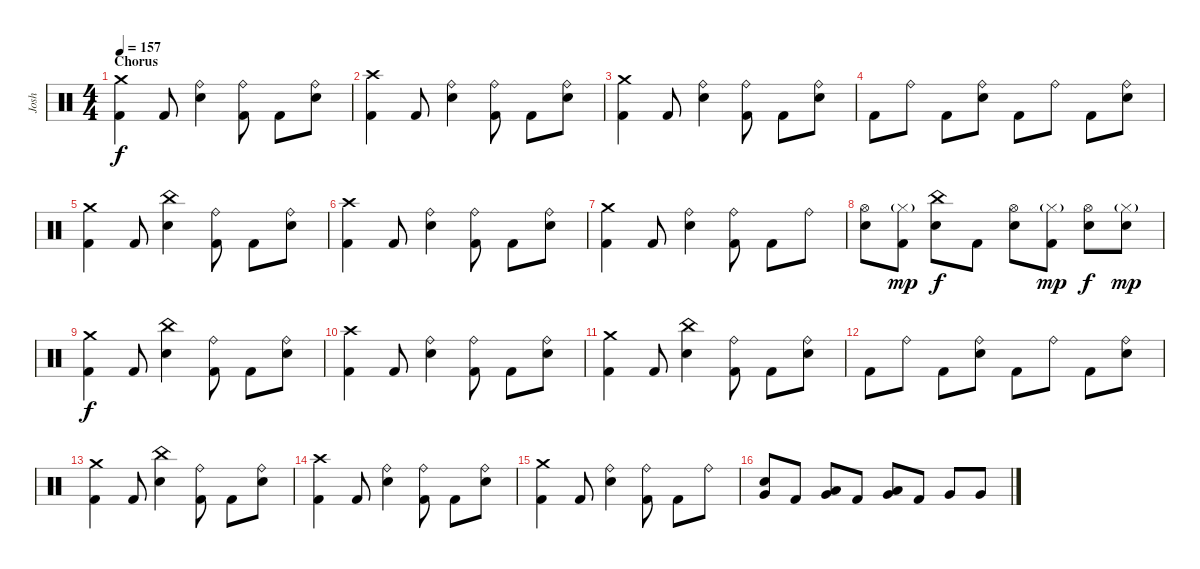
\track ("Josh" "Josh") {instrument percussion}
\staff {score}
\articulation defaults
\ts (4 4)
\section ("" "Chorus")
\tempo 157
\clef neutral
\ks c
("Crash medium (hit)" "Kick (hit) 2").4{dy f} "Kick (hit) 2".8 ("Ride (bell)" "Electric Snare (hit)").4 ("Ride (bell)" "Kick (hit) 2").8 "Kick (hit) 2".8 ("Ride (bell)" "Electric Snare (hit)").8 |
("Crash high (hit)" "Kick (hit) 2").4 "Kick (hit) 2".8 ("Ride (bell)" "Electric Snare (hit)").4 ("Ride (bell)" "Kick (hit) 2").8 "Kick (hit) 2".8 ("Ride (bell)" "Electric Snare (hit)").8 |
("Crash medium (hit)" "Kick (hit) 2").4 "Kick (hit) 2".8 ("Ride (bell)" "Electric Snare (hit)").4 ("Ride (bell)" "Kick (hit) 2").8 "Kick (hit) 2".8 ("Ride (bell)" "Electric Snare (hit)").8 |
"Kick (hit) 2".8 "Ride (bell)".8 "Kick (hit) 2".8 ("Ride (bell)" "Electric Snare (hit)").8 "Kick (hit) 2".8 "Ride (bell)".8 "Kick (hit) 2".8 ("Ride (bell)" "Electric Snare (hit)").8 |
("Crash medium (hit)" "Kick (hit) 2").4 "Kick (hit) 2".8 ("China (hit)" "Electric Snare (hit)").4 ("Ride (bell)" "Kick (hit) 2").8 "Kick (hit) 2".8 ("Ride (bell)" "Electric Snare (hit)").8 |
("Crash high (hit)" "Kick (hit) 2").4 "Kick (hit) 2".8 ("Ride (bell)" "Electric Snare (hit)").4 ("Ride (bell)" "Kick (hit) 2").8 "Kick (hit) 2".8 ("Ride (bell)" "Electric Snare (hit)").8 |
("Crash medium (hit)" "Kick (hit) 2").4 "Kick (hit) 2".8 ("Ride (bell)" "Electric Snare (hit)").4 ("Ride (bell)" "Kick (hit) 2").8 "Kick (hit) 2".8 "Ride (bell)".8 |
("Hi-Hat (open)" "Electric Snare (hit)").8 ("Hi-Hat (closed)"{g} "Kick (hit) 2").8{dy mp} ("China (hit)" "Electric Snare (hit)").8{dy f} "Kick (hit) 2".8 ("Hi-Hat (open)" "Electric Snare (hit)").8 ("Hi-Hat (closed)"{g} "Kick (hit) 2").8{dy mp} ("Hi-Hat (open)" "Electric Snare (hit)").8{dy f} ("Hi-Hat (closed)"{g} "Electric Snare (hit)").8{dy mp} |
("Crash medium (hit)" "Kick (hit) 2").4{dy f} "Kick (hit) 2".8 ("China (hit)" "Electric Snare (hit)").4 ("Ride (bell)" "Kick (hit) 2").8 "Kick (hit) 2".8 ("Ride (bell)" "Electric Snare (hit)").8 |
("Crash high (hit)" "Kick (hit) 2").4 "Kick (hit) 2".8 ("Ride (bell)" "Electric Snare (hit)").4 ("Ride (bell)" "Kick (hit) 2").8 "Kick (hit) 2".8 ("Ride (bell)" "Electric Snare (hit)").8 |
("Crash medium (hit)" "Kick (hit) 2").4 "Kick (hit) 2".8 ("China (hit)" "Electric Snare (hit)").4 ("Ride (bell)" "Kick (hit) 2").8 "Kick (hit) 2".8 ("Ride (bell)" "Electric Snare (hit)").8 |
"Kick (hit) 2".8 "Ride (bell)".8 "Kick (hit) 2".8 ("Ride (bell)" "Electric Snare (hit)").8 "Kick (hit) 2".8 "Ride (bell)".8 "Kick (hit) 2".8 ("Ride (bell)" "Electric Snare (hit)").8 |
("Crash medium (hit)" "Kick (hit) 2").4 "Kick (hit) 2".8 ("China (hit)" "Electric Snare (hit)").4 ("Ride (bell)" "Kick (hit) 2").8 "Kick (hit) 2".8 ("Ride (bell)" "Electric Snare (hit)").8 |
("Crash high (hit)" "Kick (hit) 2").4 "Kick (hit) 2".8 ("Ride (bell)" "Electric Snare (hit)").4 ("Ride (bell)" "Kick (hit) 2").8 "Kick (hit) 2".8 ("Ride (bell)" "Electric Snare (hit)").8 |
("Crash medium (hit)" "Kick (hit) 2").4 "Kick (hit) 2".8 ("Ride (bell)" "Electric Snare (hit)").4 ("Ride (bell)" "Kick (hit) 2").8 "Kick (hit) 2".8 "Ride (bell)".8 |
("Very Low Tom (hit)" "Electric Snare (hit)").8 "Kick (hit) 2".8 ("Low Tom (hit)" "Very Low Tom (hit)").8 "Kick (hit) 2".8 ("Low Tom (hit)" "Very Low Tom (hit)").8 "Kick (hit) 2".8 "Very Low Tom (hit)".8 "Very Low Tom (hit)".8
